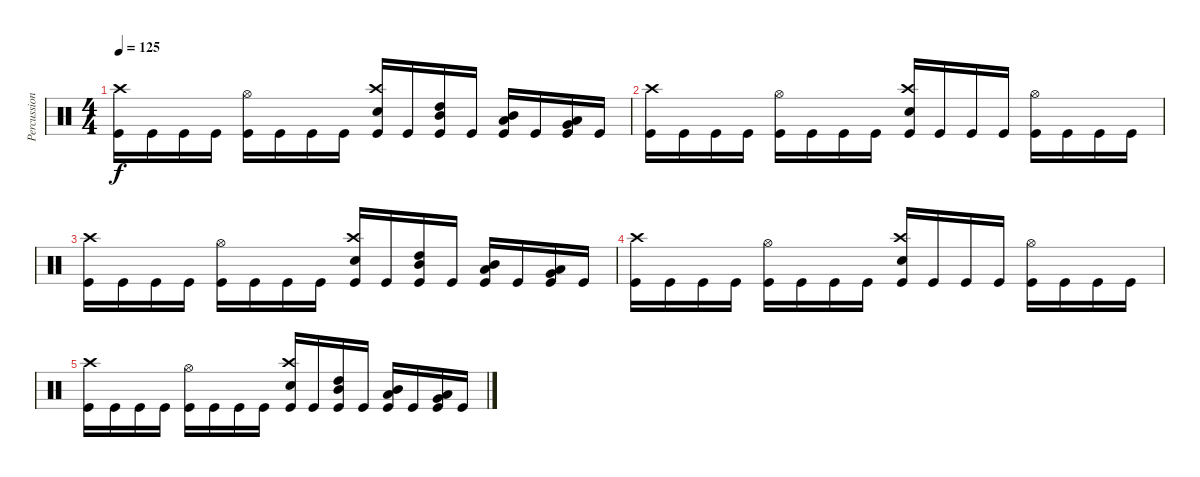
\track ("Percussion" "Percussion") {instrument percussion}
\staff {score}
\articulation defaults
\ts (4 4)
\tempo 125
\clef neutral
\ks c
("Kick (hit)" "Crash high (hit)").16{dy f} "Kick (hit)".16 "Kick (hit)".16 "Kick (hit)".16 ("Kick (hit)" "Hi-Hat (open)").16 "Kick (hit)".16 "Kick (hit)".16 "Kick (hit)".16 ("Kick (hit)" "Snare (hit) 2" "Crash high (hit)").16 "Kick (hit)".16 ("Kick (hit)" "High Tom (hit)" "Mid Tom (hit)").16 "Kick (hit)".16 ("Kick (hit)" "Mid Tom (hit)" "Low Tom (hit)").16 "Kick (hit)".16 ("Kick (hit)" "Very Low Tom (hit)" "Low Tom (hit)").16 "Kick (hit)".16 |
("Kick (hit)" "Crash high (hit)").16 "Kick (hit)".16 "Kick (hit)".16 "Kick (hit)".16 ("Kick (hit)" "Hi-Hat (open)").16 "Kick (hit)".16 "Kick (hit)".16 "Kick (hit)".16 ("Kick (hit)" "Snare (hit) 2" "Crash high (hit)").16 "Kick (hit)".16 "Kick (hit)".16 "Kick (hit)".16 ("Kick (hit)" "Hi-Hat (open)").16 "Kick (hit)".16 "Kick (hit)".16 "Kick (hit)".16 |
("Kick (hit)" "Crash high (hit)").16 "Kick (hit)".16 "Kick (hit)".16 "Kick (hit)".16 ("Kick (hit)" "Hi-Hat (open)").16 "Kick (hit)".16 "Kick (hit)".16 "Kick (hit)".16 ("Kick (hit)" "Snare (hit) 2" "Crash high (hit)").16 "Kick (hit)".16 ("Kick (hit)" "High Tom (hit)" "Mid Tom (hit)").16 "Kick (hit)".16 ("Kick (hit)" "Mid Tom (hit)" "Low Tom (hit)").16 "Kick (hit)".16 ("Kick (hit)" "Very Low Tom (hit)" "Low Tom (hit)").16 "Kick (hit)".16 |
("Kick (hit)" "Crash high (hit)").16 "Kick (hit)".16 "Kick (hit)".16 "Kick (hit)".16 ("Kick (hit)" "Hi-Hat (open)").16 "Kick (hit)".16 "Kick (hit)".16 "Kick (hit)".16 ("Kick (hit)" "Snare (hit) 2" "Crash high (hit)").16 "Kick (hit)".16 "Kick (hit)".16 "Kick (hit)".16 ("Kick (hit)" "Hi-Hat (open)").16 "Kick (hit)".16 "Kick (hit)".16 "Kick (hit)".16 |
("Kick (hit)" "Crash high (hit)").16 "Kick (hit)".16 "Kick (hit)".16 "Kick (hit)".16 ("Kick (hit)" "Hi-Hat (open)").16 "Kick (hit)".16 "Kick (hit)".16 "Kick (hit)".16 ("Kick (hit)" "Snare (hit) 2" "Crash high (hit)").16 "Kick (hit)".16 ("Kick (hit)" "High Tom (hit)" "Mid Tom (hit)").16 "Kick (hit)".16 ("Kick (hit)" "Mid Tom (hit)" "Low Tom (hit)").16 "Kick (hit)".16 ("Kick (hit)" "Very Low Tom (hit)" "Low Tom (hit)").16 "Kick (hit)".16
